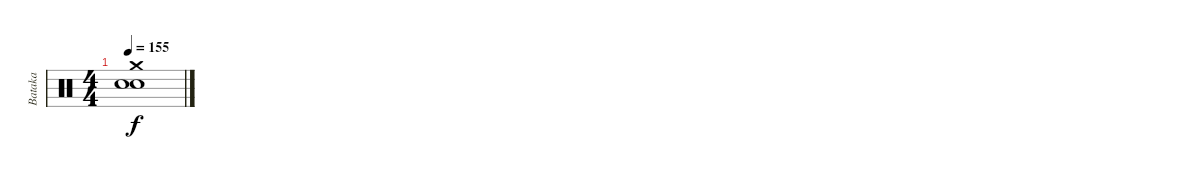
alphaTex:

\track ("Bataka" "Bataka") {instrument percussion}
\staff {score}
\articulation defaults
\ts (4 4)
\tempo 155
\clef neutral
\ks c
("Crash medium (hit)" "Snare (hit) 2" "Snare (hit) 2").1{dy f}
